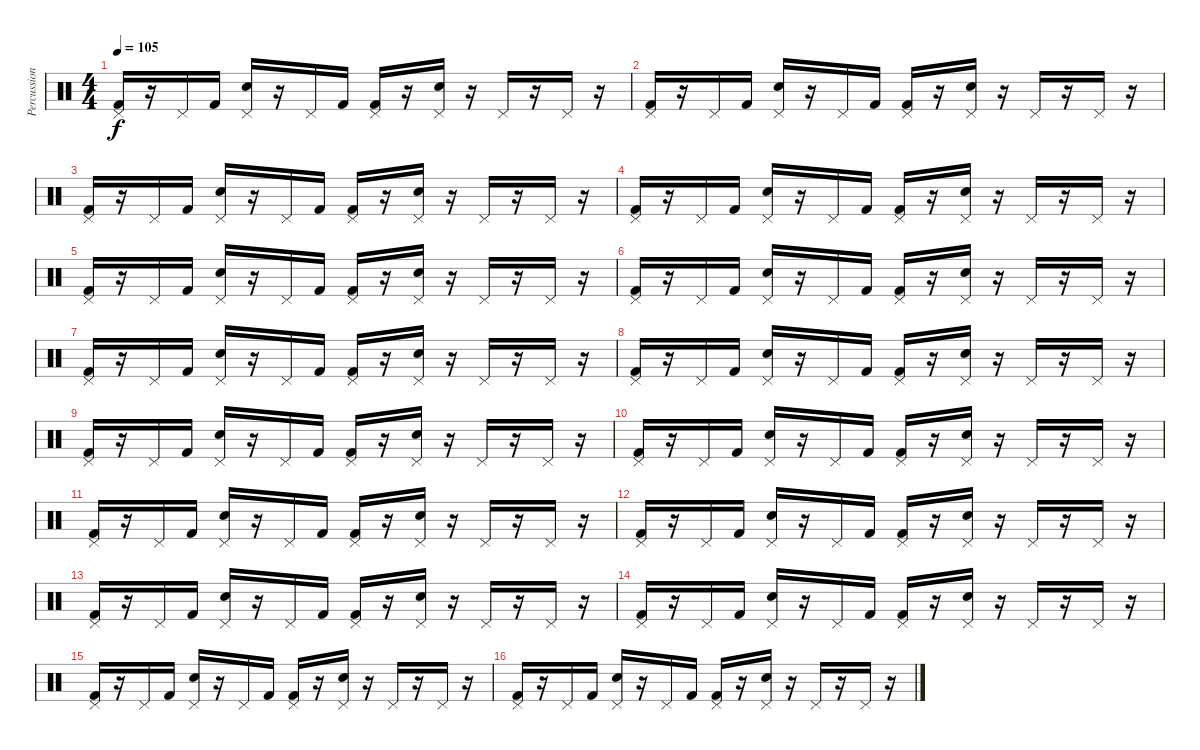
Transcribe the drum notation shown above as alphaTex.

\track ("Percussion" "Percussion") {instrument percussion}
\staff {score}
\articulation defaults
\ts (4 4)
\tempo 105
\clef neutral
\ks c
("Pedal Hi-Hat (hit)" "Kick (hit) 2").16{dy f} r.16 "Pedal Hi-Hat (hit)".16 "Kick (hit) 2".16 ("Pedal Hi-Hat (hit)" "Electric Snare (hit)").16 r.16 "Pedal Hi-Hat (hit)".16 "Kick (hit) 2".16 ("Pedal Hi-Hat (hit)" "Kick (hit) 2").16 r.16 ("Pedal Hi-Hat (hit)" "Electric Snare (hit)").16 r.16 "Pedal Hi-Hat (hit)".16 r.16 "Pedal Hi-Hat (hit)".16 r.16 |
("Pedal Hi-Hat (hit)" "Kick (hit) 2").16{volume 11} r.16 "Pedal Hi-Hat (hit)".16 "Kick (hit) 2".16 ("Pedal Hi-Hat (hit)" "Electric Snare (hit)").16 r.16 "Pedal Hi-Hat (hit)".16 "Kick (hit) 2".16 ("Pedal Hi-Hat (hit)" "Kick (hit) 2").16 r.16 ("Pedal Hi-Hat (hit)" "Electric Snare (hit)").16 r.16 "Pedal Hi-Hat (hit)".16 r.16 "Pedal Hi-Hat (hit)".16 r.16 |
("Pedal Hi-Hat (hit)" "Kick (hit) 2").16 r.16 "Pedal Hi-Hat (hit)".16 "Kick (hit) 2".16 ("Pedal Hi-Hat (hit)" "Electric Snare (hit)").16 r.16 "Pedal Hi-Hat (hit)".16 "Kick (hit) 2".16 ("Pedal Hi-Hat (hit)" "Kick (hit) 2").16 r.16 ("Pedal Hi-Hat (hit)" "Electric Snare (hit)").16 r.16 "Pedal Hi-Hat (hit)".16 r.16 "Pedal Hi-Hat (hit)".16 r.16 |
("Pedal Hi-Hat (hit)" "Kick (hit) 2").16 r.16 "Pedal Hi-Hat (hit)".16 "Kick (hit) 2".16 ("Pedal Hi-Hat (hit)" "Electric Snare (hit)").16 r.16 "Pedal Hi-Hat (hit)".16 "Kick (hit) 2".16 ("Pedal Hi-Hat (hit)" "Kick (hit) 2").16 r.16 ("Pedal Hi-Hat (hit)" "Electric Snare (hit)").16 r.16 "Pedal Hi-Hat (hit)".16 r.16 "Pedal Hi-Hat (hit)".16 r.16 |
("Pedal Hi-Hat (hit)" "Kick (hit) 2").16 r.16 "Pedal Hi-Hat (hit)".16 "Kick (hit) 2".16 ("Pedal Hi-Hat (hit)" "Electric Snare (hit)").16 r.16 "Pedal Hi-Hat (hit)".16 "Kick (hit) 2".16 ("Pedal Hi-Hat (hit)" "Kick (hit) 2").16 r.16 ("Pedal Hi-Hat (hit)" "Electric Snare (hit)").16 r.16 "Pedal Hi-Hat (hit)".16 r.16 "Pedal Hi-Hat (hit)".16 r.16 |
("Pedal Hi-Hat (hit)" "Kick (hit) 2").16 r.16 "Pedal Hi-Hat (hit)".16 "Kick (hit) 2".16 ("Pedal Hi-Hat (hit)" "Electric Snare (hit)").16 r.16 "Pedal Hi-Hat (hit)".16 "Kick (hit) 2".16 ("Pedal Hi-Hat (hit)" "Kick (hit) 2").16 r.16 ("Pedal Hi-Hat (hit)" "Electric Snare (hit)").16 r.16 "Pedal Hi-Hat (hit)".16 r.16 "Pedal Hi-Hat (hit)".16 r.16 |
("Pedal Hi-Hat (hit)" "Kick (hit) 2").16 r.16 "Pedal Hi-Hat (hit)".16 "Kick (hit) 2".16 ("Pedal Hi-Hat (hit)" "Electric Snare (hit)").16 r.16 "Pedal Hi-Hat (hit)".16 "Kick (hit) 2".16 ("Pedal Hi-Hat (hit)" "Kick (hit) 2").16 r.16 ("Pedal Hi-Hat (hit)" "Electric Snare (hit)").16 r.16 "Pedal Hi-Hat (hit)".16 r.16 "Pedal Hi-Hat (hit)".16 r.16 |
("Pedal Hi-Hat (hit)" "Kick (hit) 2").16 r.16 "Pedal Hi-Hat (hit)".16 "Kick (hit) 2".16 ("Pedal Hi-Hat (hit)" "Electric Snare (hit)").16 r.16 "Pedal Hi-Hat (hit)".16 "Kick (hit) 2".16 ("Pedal Hi-Hat (hit)" "Kick (hit) 2").16 r.16 ("Pedal Hi-Hat (hit)" "Electric Snare (hit)").16 r.16 "Pedal Hi-Hat (hit)".16 r.16 "Pedal Hi-Hat (hit)".16 r.16 |
("Pedal Hi-Hat (hit)" "Kick (hit) 2").16 r.16 "Pedal Hi-Hat (hit)".16 "Kick (hit) 2".16 ("Pedal Hi-Hat (hit)" "Electric Snare (hit)").16 r.16 "Pedal Hi-Hat (hit)".16 "Kick (hit) 2".16 ("Pedal Hi-Hat (hit)" "Kick (hit) 2").16 r.16 ("Pedal Hi-Hat (hit)" "Electric Snare (hit)").16 r.16 "Pedal Hi-Hat (hit)".16 r.16 "Pedal Hi-Hat (hit)".16 r.16 |
("Pedal Hi-Hat (hit)" "Kick (hit) 2").16 r.16 "Pedal Hi-Hat (hit)".16 "Kick (hit) 2".16 ("Pedal Hi-Hat (hit)" "Electric Snare (hit)").16 r.16 "Pedal Hi-Hat (hit)".16 "Kick (hit) 2".16 ("Pedal Hi-Hat (hit)" "Kick (hit) 2").16 r.16 ("Pedal Hi-Hat (hit)" "Electric Snare (hit)").16 r.16 "Pedal Hi-Hat (hit)".16 r.16 "Pedal Hi-Hat (hit)".16 r.16 |
("Pedal Hi-Hat (hit)" "Kick (hit) 2").16 r.16 "Pedal Hi-Hat (hit)".16 "Kick (hit) 2".16 ("Pedal Hi-Hat (hit)" "Electric Snare (hit)").16 r.16 "Pedal Hi-Hat (hit)".16 "Kick (hit) 2".16 ("Pedal Hi-Hat (hit)" "Kick (hit) 2").16 r.16 ("Pedal Hi-Hat (hit)" "Electric Snare (hit)").16 r.16 "Pedal Hi-Hat (hit)".16 r.16 "Pedal Hi-Hat (hit)".16 r.16 |
("Pedal Hi-Hat (hit)" "Kick (hit) 2").16 r.16 "Pedal Hi-Hat (hit)".16 "Kick (hit) 2".16 ("Pedal Hi-Hat (hit)" "Electric Snare (hit)").16 r.16 "Pedal Hi-Hat (hit)".16 "Kick (hit) 2".16 ("Pedal Hi-Hat (hit)" "Kick (hit) 2").16 r.16 ("Pedal Hi-Hat (hit)" "Electric Snare (hit)").16 r.16 "Pedal Hi-Hat (hit)".16 r.16 "Pedal Hi-Hat (hit)".16 r.16 |
("Pedal Hi-Hat (hit)" "Kick (hit) 2").16 r.16 "Pedal Hi-Hat (hit)".16 "Kick (hit) 2".16 ("Pedal Hi-Hat (hit)" "Electric Snare (hit)").16 r.16 "Pedal Hi-Hat (hit)".16 "Kick (hit) 2".16 ("Pedal Hi-Hat (hit)" "Kick (hit) 2").16 r.16 ("Pedal Hi-Hat (hit)" "Electric Snare (hit)").16 r.16 "Pedal Hi-Hat (hit)".16 r.16 "Pedal Hi-Hat (hit)".16 r.16 |
("Pedal Hi-Hat (hit)" "Kick (hit) 2").16 r.16 "Pedal Hi-Hat (hit)".16 "Kick (hit) 2".16 ("Pedal Hi-Hat (hit)" "Electric Snare (hit)").16 r.16 "Pedal Hi-Hat (hit)".16 "Kick (hit) 2".16 ("Pedal Hi-Hat (hit)" "Kick (hit) 2").16 r.16 ("Pedal Hi-Hat (hit)" "Electric Snare (hit)").16 r.16 "Pedal Hi-Hat (hit)".16 r.16 "Pedal Hi-Hat (hit)".16 r.16 |
("Pedal Hi-Hat (hit)" "Kick (hit) 2").16 r.16 "Pedal Hi-Hat (hit)".16 "Kick (hit) 2".16 ("Pedal Hi-Hat (hit)" "Electric Snare (hit)").16 r.16 "Pedal Hi-Hat (hit)".16 "Kick (hit) 2".16 ("Pedal Hi-Hat (hit)" "Kick (hit) 2").16 r.16 ("Pedal Hi-Hat (hit)" "Electric Snare (hit)").16 r.16 "Pedal Hi-Hat (hit)".16 r.16 "Pedal Hi-Hat (hit)".16 r.16 |
("Pedal Hi-Hat (hit)" "Kick (hit) 2").16 r.16 "Pedal Hi-Hat (hit)".16 "Kick (hit) 2".16 ("Pedal Hi-Hat (hit)" "Electric Snare (hit)").16 r.16 "Pedal Hi-Hat (hit)".16 "Kick (hit) 2".16 ("Pedal Hi-Hat (hit)" "Kick (hit) 2").16 r.16 ("Pedal Hi-Hat (hit)" "Electric Snare (hit)").16 r.16 "Pedal Hi-Hat (hit)".16 r.16 "Pedal Hi-Hat (hit)".16 r.16
